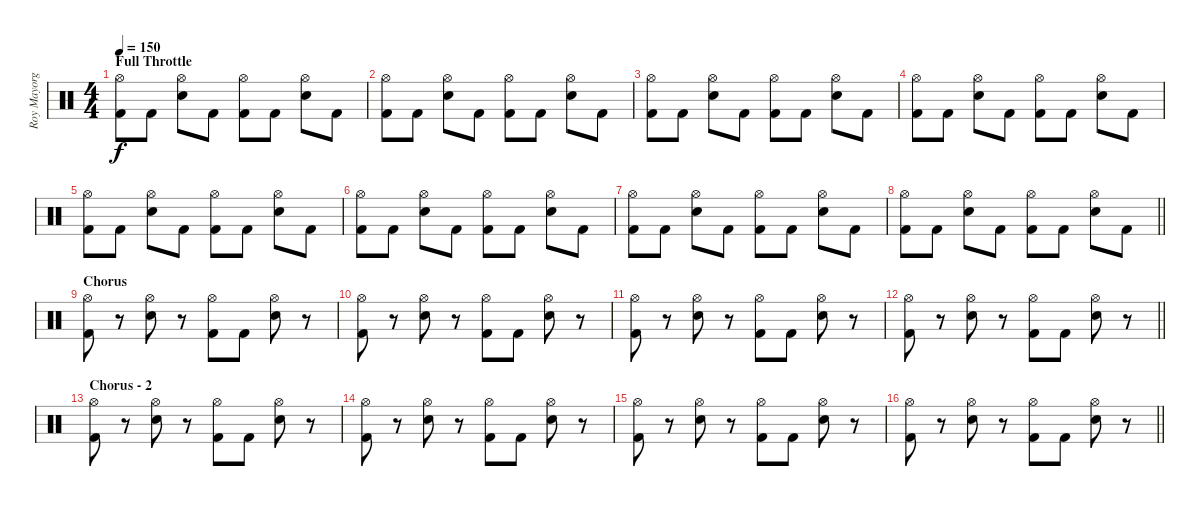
\track ("Roy Mayorga" "Roy Mayorg") {instrument percussion}
\staff {score}
\articulation defaults
\ts (4 4)
\section ("" "Full Throttle")
\tempo 150
\clef neutral
\ks c
("Hi-Hat (open)" "Kick (hit) 2").8{dy f} "Kick (hit) 2".8 ("Hi-Hat (open)" "Electric Snare (hit)").8 "Kick (hit) 2".8 ("Hi-Hat (open)" "Kick (hit) 2").8 "Kick (hit) 2".8 ("Hi-Hat (open)" "Electric Snare (hit)").8 "Kick (hit) 2".8 |
("Hi-Hat (open)" "Kick (hit) 2").8 "Kick (hit) 2".8 ("Hi-Hat (open)" "Electric Snare (hit)").8 "Kick (hit) 2".8 ("Hi-Hat (open)" "Kick (hit) 2").8 "Kick (hit) 2".8 ("Hi-Hat (open)" "Electric Snare (hit)").8 "Kick (hit) 2".8 |
("Hi-Hat (open)" "Kick (hit) 2").8 "Kick (hit) 2".8 ("Hi-Hat (open)" "Electric Snare (hit)").8 "Kick (hit) 2".8 ("Hi-Hat (open)" "Kick (hit) 2").8 "Kick (hit) 2".8 ("Hi-Hat (open)" "Electric Snare (hit)").8 "Kick (hit) 2".8 |
("Hi-Hat (open)" "Kick (hit) 2").8 "Kick (hit) 2".8 ("Hi-Hat (open)" "Electric Snare (hit)").8 "Kick (hit) 2".8 ("Hi-Hat (open)" "Kick (hit) 2").8 "Kick (hit) 2".8 ("Hi-Hat (open)" "Electric Snare (hit)").8 "Kick (hit) 2".8 |
("Hi-Hat (open)" "Kick (hit) 2").8 "Kick (hit) 2".8 ("Hi-Hat (open)" "Electric Snare (hit)").8 "Kick (hit) 2".8 ("Hi-Hat (open)" "Kick (hit) 2").8 "Kick (hit) 2".8 ("Hi-Hat (open)" "Electric Snare (hit)").8 "Kick (hit) 2".8 |
("Hi-Hat (open)" "Kick (hit) 2").8 "Kick (hit) 2".8 ("Hi-Hat (open)" "Electric Snare (hit)").8 "Kick (hit) 2".8 ("Hi-Hat (open)" "Kick (hit) 2").8 "Kick (hit) 2".8 ("Hi-Hat (open)" "Electric Snare (hit)").8 "Kick (hit) 2".8 |
("Hi-Hat (open)" "Kick (hit) 2").8 "Kick (hit) 2".8 ("Hi-Hat (open)" "Electric Snare (hit)").8 "Kick (hit) 2".8 ("Hi-Hat (open)" "Kick (hit) 2").8 "Kick (hit) 2".8 ("Hi-Hat (open)" "Electric Snare (hit)").8 "Kick (hit) 2".8 |
\barLineRight lightlight
("Hi-Hat (open)" "Kick (hit) 2").8 "Kick (hit) 2".8 ("Hi-Hat (open)" "Electric Snare (hit)").8 "Kick (hit) 2".8 ("Hi-Hat (open)" "Kick (hit) 2").8 "Kick (hit) 2".8 ("Hi-Hat (open)" "Electric Snare (hit)").8 "Kick (hit) 2".8 |
\section ("" "Chorus")
("Hi-Hat (open)" "Kick (hit) 2").8 r.8 ("Hi-Hat (open)" "Electric Snare (hit)").8 r.8 ("Hi-Hat (open)" "Kick (hit) 2").8 "Kick (hit) 2".8 ("Hi-Hat (open)" "Electric Snare (hit)").8 r.8 |
("Hi-Hat (open)" "Kick (hit) 2").8 r.8 ("Hi-Hat (open)" "Electric Snare (hit)").8 r.8 ("Hi-Hat (open)" "Kick (hit) 2").8 "Kick (hit) 2".8 ("Hi-Hat (open)" "Electric Snare (hit)").8 r.8 |
("Hi-Hat (open)" "Kick (hit) 2").8 r.8 ("Hi-Hat (open)" "Electric Snare (hit)").8 r.8 ("Hi-Hat (open)" "Kick (hit) 2").8 "Kick (hit) 2".8 ("Hi-Hat (open)" "Electric Snare (hit)").8 r.8 |
\barLineRight lightlight
("Hi-Hat (open)" "Kick (hit) 2").8 r.8 ("Hi-Hat (open)" "Electric Snare (hit)").8 r.8 ("Hi-Hat (open)" "Kick (hit) 2").8 "Kick (hit) 2".8 ("Hi-Hat (open)" "Electric Snare (hit)").8 r.8 |
\section ("" "Chorus - 2")
("Hi-Hat (open)" "Kick (hit) 2").8 r.8 ("Hi-Hat (open)" "Electric Snare (hit)").8 r.8 ("Hi-Hat (open)" "Kick (hit) 2").8 "Kick (hit) 2".8 ("Hi-Hat (open)" "Electric Snare (hit)").8 r.8 |
("Hi-Hat (open)" "Kick (hit) 2").8 r.8 ("Hi-Hat (open)" "Electric Snare (hit)").8 r.8 ("Hi-Hat (open)" "Kick (hit) 2").8 "Kick (hit) 2".8 ("Hi-Hat (open)" "Electric Snare (hit)").8 r.8 |
("Hi-Hat (open)" "Kick (hit) 2").8 r.8 ("Hi-Hat (open)" "Electric Snare (hit)").8 r.8 ("Hi-Hat (open)" "Kick (hit) 2").8 "Kick (hit) 2".8 ("Hi-Hat (open)" "Electric Snare (hit)").8 r.8 |
\barLineRight lightlight
("Hi-Hat (open)" "Kick (hit) 2").8 r.8 ("Hi-Hat (open)" "Electric Snare (hit)").8 r.8 ("Hi-Hat (open)" "Kick (hit) 2").8 "Kick (hit) 2".8 ("Hi-Hat (open)" "Electric Snare (hit)").8 r.8
